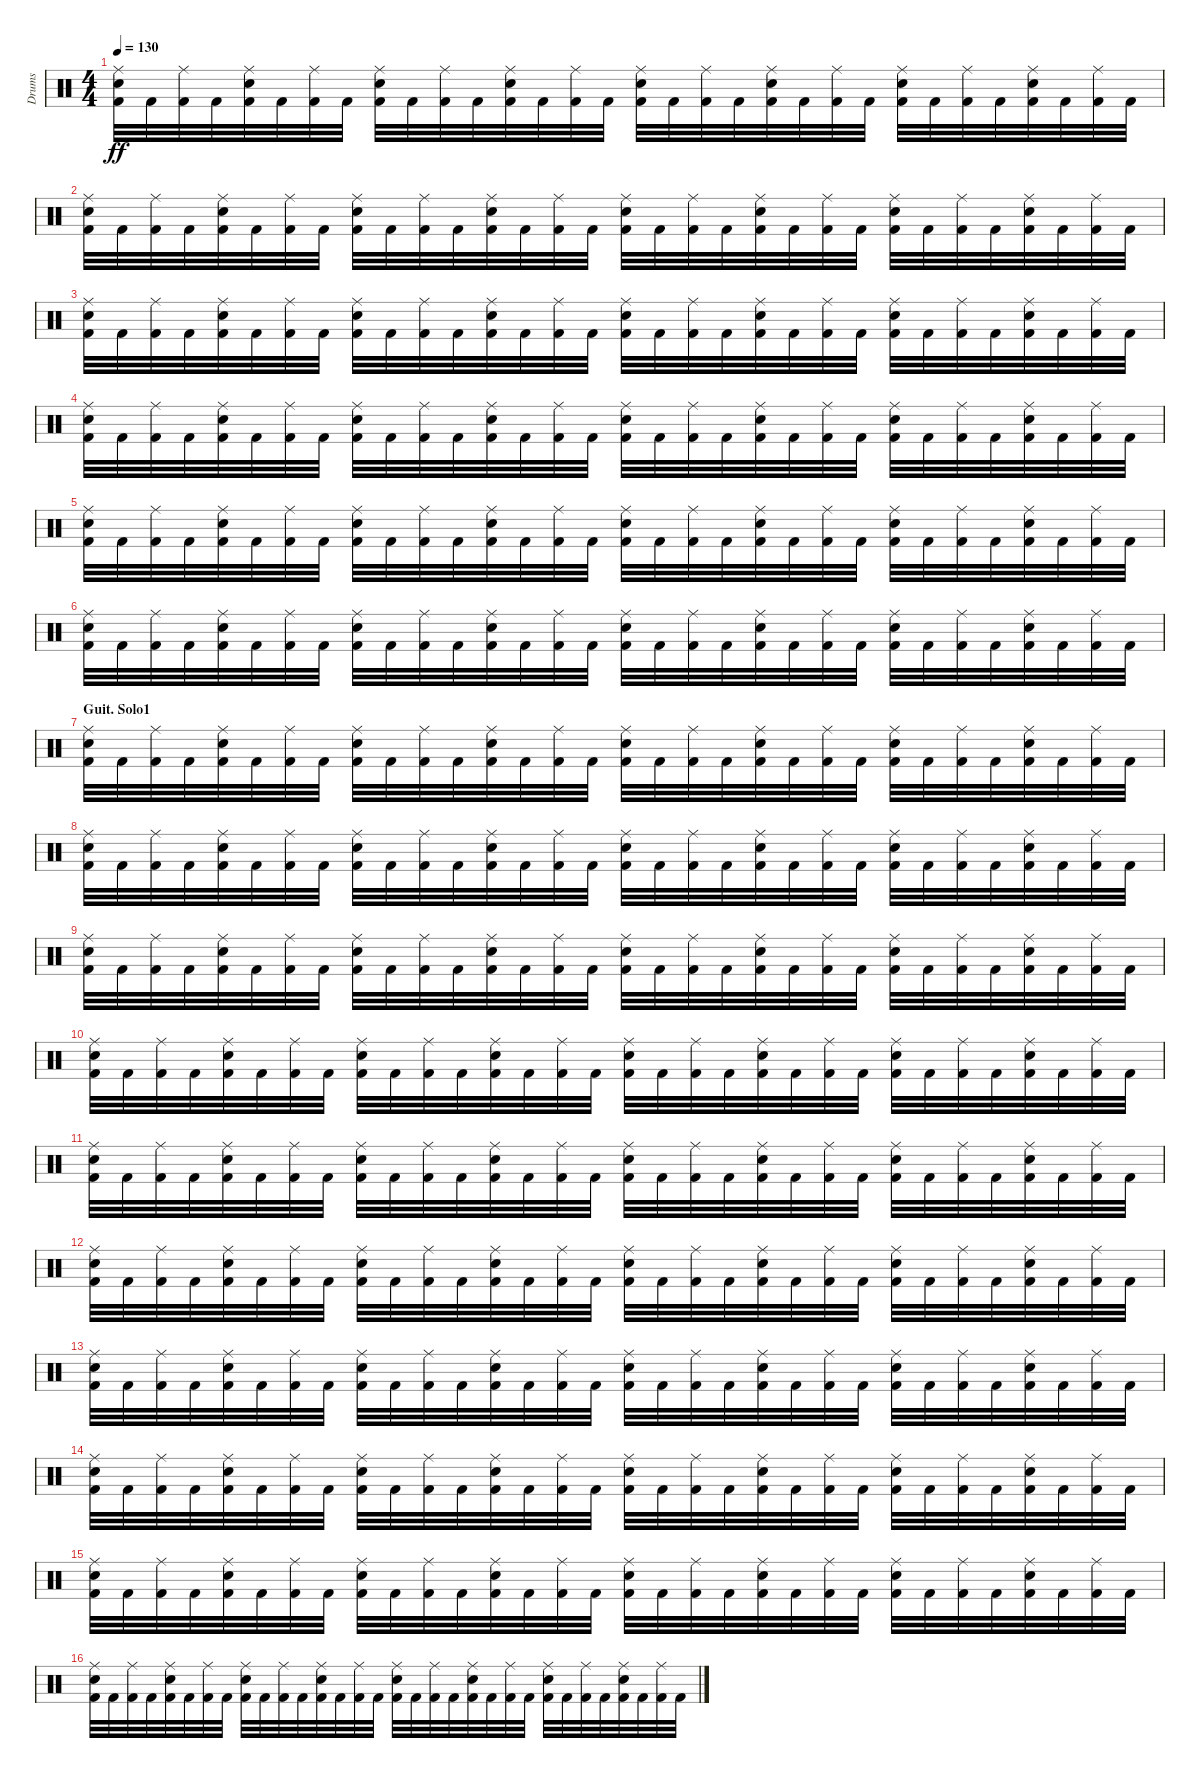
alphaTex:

\track ("Drums" "Drums") {instrument percussion}
\staff {score}
\articulation defaults
\ts (4 4)
\tempo 130
\clef neutral
\ks c
("Electric Snare (hit)" "Ride (middle)" "Kick (hit) 2").32{dy ff} "Kick (hit) 2".32 ("Ride (middle)" "Kick (hit) 2").32 "Kick (hit) 2".32 ("Electric Snare (hit)" "Ride (middle)" "Kick (hit) 2").32 "Kick (hit) 2".32 ("Ride (middle)" "Kick (hit) 2").32 "Kick (hit) 2".32 ("Electric Snare (hit)" "Ride (middle)" "Kick (hit) 2").32 "Kick (hit) 2".32 ("Ride (middle)" "Kick (hit) 2").32 "Kick (hit) 2".32 ("Electric Snare (hit)" "Ride (middle)" "Kick (hit) 2").32 "Kick (hit) 2".32 ("Ride (middle)" "Kick (hit) 2").32 "Kick (hit) 2".32 ("Electric Snare (hit)" "Ride (middle)" "Kick (hit) 2").32 "Kick (hit) 2".32 ("Ride (middle)" "Kick (hit) 2").32 "Kick (hit) 2".32 ("Electric Snare (hit)" "Ride (middle)" "Kick (hit) 2").32 "Kick (hit) 2".32 ("Ride (middle)" "Kick (hit) 2").32 "Kick (hit) 2".32 ("Electric Snare (hit)" "Ride (middle)" "Kick (hit) 2").32 "Kick (hit) 2".32 ("Ride (middle)" "Kick (hit) 2").32 "Kick (hit) 2".32 ("Electric Snare (hit)" "Ride (middle)" "Kick (hit) 2").32 "Kick (hit) 2".32 ("Ride (middle)" "Kick (hit) 2").32 "Kick (hit) 2".32 |
("Electric Snare (hit)" "Ride (middle)" "Kick (hit) 2").32 "Kick (hit) 2".32 ("Ride (middle)" "Kick (hit) 2").32 "Kick (hit) 2".32 ("Electric Snare (hit)" "Ride (middle)" "Kick (hit) 2").32 "Kick (hit) 2".32 ("Ride (middle)" "Kick (hit) 2").32 "Kick (hit) 2".32 ("Electric Snare (hit)" "Ride (middle)" "Kick (hit) 2").32 "Kick (hit) 2".32 ("Ride (middle)" "Kick (hit) 2").32 "Kick (hit) 2".32 ("Electric Snare (hit)" "Ride (middle)" "Kick (hit) 2").32 "Kick (hit) 2".32 ("Ride (middle)" "Kick (hit) 2").32 "Kick (hit) 2".32 ("Electric Snare (hit)" "Ride (middle)" "Kick (hit) 2").32 "Kick (hit) 2".32 ("Ride (middle)" "Kick (hit) 2").32 "Kick (hit) 2".32 ("Electric Snare (hit)" "Ride (middle)" "Kick (hit) 2").32 "Kick (hit) 2".32 ("Ride (middle)" "Kick (hit) 2").32 "Kick (hit) 2".32 ("Electric Snare (hit)" "Ride (middle)" "Kick (hit) 2").32 "Kick (hit) 2".32 ("Ride (middle)" "Kick (hit) 2").32 "Kick (hit) 2".32 ("Electric Snare (hit)" "Ride (middle)" "Kick (hit) 2").32 "Kick (hit) 2".32 ("Ride (middle)" "Kick (hit) 2").32 "Kick (hit) 2".32 |
("Electric Snare (hit)" "Ride (middle)" "Kick (hit) 2").32 "Kick (hit) 2".32 ("Ride (middle)" "Kick (hit) 2").32 "Kick (hit) 2".32 ("Electric Snare (hit)" "Ride (middle)" "Kick (hit) 2").32 "Kick (hit) 2".32 ("Ride (middle)" "Kick (hit) 2").32 "Kick (hit) 2".32 ("Electric Snare (hit)" "Ride (middle)" "Kick (hit) 2").32 "Kick (hit) 2".32 ("Ride (middle)" "Kick (hit) 2").32 "Kick (hit) 2".32 ("Electric Snare (hit)" "Ride (middle)" "Kick (hit) 2").32 "Kick (hit) 2".32 ("Ride (middle)" "Kick (hit) 2").32 "Kick (hit) 2".32 ("Electric Snare (hit)" "Ride (middle)" "Kick (hit) 2").32 "Kick (hit) 2".32 ("Ride (middle)" "Kick (hit) 2").32 "Kick (hit) 2".32 ("Electric Snare (hit)" "Ride (middle)" "Kick (hit) 2").32 "Kick (hit) 2".32 ("Ride (middle)" "Kick (hit) 2").32 "Kick (hit) 2".32 ("Electric Snare (hit)" "Ride (middle)" "Kick (hit) 2").32 "Kick (hit) 2".32 ("Ride (middle)" "Kick (hit) 2").32 "Kick (hit) 2".32 ("Electric Snare (hit)" "Ride (middle)" "Kick (hit) 2").32 "Kick (hit) 2".32 ("Ride (middle)" "Kick (hit) 2").32 "Kick (hit) 2".32 |
("Electric Snare (hit)" "Ride (middle)" "Kick (hit) 2").32 "Kick (hit) 2".32 ("Ride (middle)" "Kick (hit) 2").32 "Kick (hit) 2".32 ("Electric Snare (hit)" "Ride (middle)" "Kick (hit) 2").32 "Kick (hit) 2".32 ("Ride (middle)" "Kick (hit) 2").32 "Kick (hit) 2".32 ("Electric Snare (hit)" "Ride (middle)" "Kick (hit) 2").32 "Kick (hit) 2".32 ("Ride (middle)" "Kick (hit) 2").32 "Kick (hit) 2".32 ("Electric Snare (hit)" "Ride (middle)" "Kick (hit) 2").32 "Kick (hit) 2".32 ("Ride (middle)" "Kick (hit) 2").32 "Kick (hit) 2".32 ("Electric Snare (hit)" "Ride (middle)" "Kick (hit) 2").32 "Kick (hit) 2".32 ("Ride (middle)" "Kick (hit) 2").32 "Kick (hit) 2".32 ("Electric Snare (hit)" "Ride (middle)" "Kick (hit) 2").32 "Kick (hit) 2".32 ("Ride (middle)" "Kick (hit) 2").32 "Kick (hit) 2".32 ("Electric Snare (hit)" "Ride (middle)" "Kick (hit) 2").32 "Kick (hit) 2".32 ("Ride (middle)" "Kick (hit) 2").32 "Kick (hit) 2".32 ("Electric Snare (hit)" "Ride (middle)" "Kick (hit) 2").32 "Kick (hit) 2".32 ("Ride (middle)" "Kick (hit) 2").32 "Kick (hit) 2".32 |
("Electric Snare (hit)" "Ride (middle)" "Kick (hit) 2").32 "Kick (hit) 2".32 ("Ride (middle)" "Kick (hit) 2").32 "Kick (hit) 2".32 ("Electric Snare (hit)" "Ride (middle)" "Kick (hit) 2").32 "Kick (hit) 2".32 ("Ride (middle)" "Kick (hit) 2").32 "Kick (hit) 2".32 ("Electric Snare (hit)" "Ride (middle)" "Kick (hit) 2").32 "Kick (hit) 2".32 ("Ride (middle)" "Kick (hit) 2").32 "Kick (hit) 2".32 ("Electric Snare (hit)" "Ride (middle)" "Kick (hit) 2").32 "Kick (hit) 2".32 ("Ride (middle)" "Kick (hit) 2").32 "Kick (hit) 2".32 ("Electric Snare (hit)" "Ride (middle)" "Kick (hit) 2").32 "Kick (hit) 2".32 ("Ride (middle)" "Kick (hit) 2").32 "Kick (hit) 2".32 ("Electric Snare (hit)" "Ride (middle)" "Kick (hit) 2").32 "Kick (hit) 2".32 ("Ride (middle)" "Kick (hit) 2").32 "Kick (hit) 2".32 ("Electric Snare (hit)" "Ride (middle)" "Kick (hit) 2").32 "Kick (hit) 2".32 ("Ride (middle)" "Kick (hit) 2").32 "Kick (hit) 2".32 ("Electric Snare (hit)" "Ride (middle)" "Kick (hit) 2").32 "Kick (hit) 2".32 ("Ride (middle)" "Kick (hit) 2").32 "Kick (hit) 2".32 |
("Electric Snare (hit)" "Ride (middle)" "Kick (hit) 2").32 "Kick (hit) 2".32 ("Ride (middle)" "Kick (hit) 2").32 "Kick (hit) 2".32 ("Electric Snare (hit)" "Ride (middle)" "Kick (hit) 2").32 "Kick (hit) 2".32 ("Ride (middle)" "Kick (hit) 2").32 "Kick (hit) 2".32 ("Electric Snare (hit)" "Ride (middle)" "Kick (hit) 2").32 "Kick (hit) 2".32 ("Ride (middle)" "Kick (hit) 2").32 "Kick (hit) 2".32 ("Electric Snare (hit)" "Ride (middle)" "Kick (hit) 2").32 "Kick (hit) 2".32 ("Ride (middle)" "Kick (hit) 2").32 "Kick (hit) 2".32 ("Electric Snare (hit)" "Ride (middle)" "Kick (hit) 2").32 "Kick (hit) 2".32 ("Ride (middle)" "Kick (hit) 2").32 "Kick (hit) 2".32 ("Electric Snare (hit)" "Ride (middle)" "Kick (hit) 2").32 "Kick (hit) 2".32 ("Ride (middle)" "Kick (hit) 2").32 "Kick (hit) 2".32 ("Electric Snare (hit)" "Ride (middle)" "Kick (hit) 2").32 "Kick (hit) 2".32 ("Ride (middle)" "Kick (hit) 2").32 "Kick (hit) 2".32 ("Electric Snare (hit)" "Ride (middle)" "Kick (hit) 2").32 "Kick (hit) 2".32 ("Ride (middle)" "Kick (hit) 2").32 "Kick (hit) 2".32 |
\section ("" "Guit. Solo1")
("Electric Snare (hit)" "Ride (middle)" "Kick (hit) 2").32 "Kick (hit) 2".32 ("Ride (middle)" "Kick (hit) 2").32 "Kick (hit) 2".32 ("Electric Snare (hit)" "Ride (middle)" "Kick (hit) 2").32 "Kick (hit) 2".32 ("Ride (middle)" "Kick (hit) 2").32 "Kick (hit) 2".32 ("Electric Snare (hit)" "Ride (middle)" "Kick (hit) 2").32 "Kick (hit) 2".32 ("Ride (middle)" "Kick (hit) 2").32 "Kick (hit) 2".32 ("Electric Snare (hit)" "Ride (middle)" "Kick (hit) 2").32 "Kick (hit) 2".32 ("Ride (middle)" "Kick (hit) 2").32 "Kick (hit) 2".32 ("Electric Snare (hit)" "Ride (middle)" "Kick (hit) 2").32 "Kick (hit) 2".32 ("Ride (middle)" "Kick (hit) 2").32 "Kick (hit) 2".32 ("Electric Snare (hit)" "Ride (middle)" "Kick (hit) 2").32 "Kick (hit) 2".32 ("Ride (middle)" "Kick (hit) 2").32 "Kick (hit) 2".32 ("Electric Snare (hit)" "Ride (middle)" "Kick (hit) 2").32 "Kick (hit) 2".32 ("Ride (middle)" "Kick (hit) 2").32 "Kick (hit) 2".32 ("Electric Snare (hit)" "Ride (middle)" "Kick (hit) 2").32 "Kick (hit) 2".32 ("Ride (middle)" "Kick (hit) 2").32 "Kick (hit) 2".32 |
("Electric Snare (hit)" "Ride (middle)" "Kick (hit) 2").32 "Kick (hit) 2".32 ("Ride (middle)" "Kick (hit) 2").32 "Kick (hit) 2".32 ("Electric Snare (hit)" "Ride (middle)" "Kick (hit) 2").32 "Kick (hit) 2".32 ("Ride (middle)" "Kick (hit) 2").32 "Kick (hit) 2".32 ("Electric Snare (hit)" "Ride (middle)" "Kick (hit) 2").32 "Kick (hit) 2".32 ("Ride (middle)" "Kick (hit) 2").32 "Kick (hit) 2".32 ("Electric Snare (hit)" "Ride (middle)" "Kick (hit) 2").32 "Kick (hit) 2".32 ("Ride (middle)" "Kick (hit) 2").32 "Kick (hit) 2".32 ("Electric Snare (hit)" "Ride (middle)" "Kick (hit) 2").32 "Kick (hit) 2".32 ("Ride (middle)" "Kick (hit) 2").32 "Kick (hit) 2".32 ("Electric Snare (hit)" "Ride (middle)" "Kick (hit) 2").32 "Kick (hit) 2".32 ("Ride (middle)" "Kick (hit) 2").32 "Kick (hit) 2".32 ("Electric Snare (hit)" "Ride (middle)" "Kick (hit) 2").32 "Kick (hit) 2".32 ("Ride (middle)" "Kick (hit) 2").32 "Kick (hit) 2".32 ("Electric Snare (hit)" "Ride (middle)" "Kick (hit) 2").32 "Kick (hit) 2".32 ("Ride (middle)" "Kick (hit) 2").32 "Kick (hit) 2".32 |
("Electric Snare (hit)" "Ride (middle)" "Kick (hit) 2").32 "Kick (hit) 2".32 ("Ride (middle)" "Kick (hit) 2").32 "Kick (hit) 2".32 ("Electric Snare (hit)" "Ride (middle)" "Kick (hit) 2").32 "Kick (hit) 2".32 ("Ride (middle)" "Kick (hit) 2").32 "Kick (hit) 2".32 ("Electric Snare (hit)" "Ride (middle)" "Kick (hit) 2").32 "Kick (hit) 2".32 ("Ride (middle)" "Kick (hit) 2").32 "Kick (hit) 2".32 ("Electric Snare (hit)" "Ride (middle)" "Kick (hit) 2").32 "Kick (hit) 2".32 ("Ride (middle)" "Kick (hit) 2").32 "Kick (hit) 2".32 ("Electric Snare (hit)" "Ride (middle)" "Kick (hit) 2").32 "Kick (hit) 2".32 ("Ride (middle)" "Kick (hit) 2").32 "Kick (hit) 2".32 ("Electric Snare (hit)" "Ride (middle)" "Kick (hit) 2").32 "Kick (hit) 2".32 ("Ride (middle)" "Kick (hit) 2").32 "Kick (hit) 2".32 ("Electric Snare (hit)" "Ride (middle)" "Kick (hit) 2").32 "Kick (hit) 2".32 ("Ride (middle)" "Kick (hit) 2").32 "Kick (hit) 2".32 ("Electric Snare (hit)" "Ride (middle)" "Kick (hit) 2").32 "Kick (hit) 2".32 ("Ride (middle)" "Kick (hit) 2").32 "Kick (hit) 2".32 |
("Electric Snare (hit)" "Ride (middle)" "Kick (hit) 2").32 "Kick (hit) 2".32 ("Ride (middle)" "Kick (hit) 2").32 "Kick (hit) 2".32 ("Electric Snare (hit)" "Ride (middle)" "Kick (hit) 2").32 "Kick (hit) 2".32 ("Ride (middle)" "Kick (hit) 2").32 "Kick (hit) 2".32 ("Electric Snare (hit)" "Ride (middle)" "Kick (hit) 2").32 "Kick (hit) 2".32 ("Ride (middle)" "Kick (hit) 2").32 "Kick (hit) 2".32 ("Electric Snare (hit)" "Ride (middle)" "Kick (hit) 2").32 "Kick (hit) 2".32 ("Ride (middle)" "Kick (hit) 2").32 "Kick (hit) 2".32 ("Electric Snare (hit)" "Ride (middle)" "Kick (hit) 2").32 "Kick (hit) 2".32 ("Ride (middle)" "Kick (hit) 2").32 "Kick (hit) 2".32 ("Electric Snare (hit)" "Ride (middle)" "Kick (hit) 2").32 "Kick (hit) 2".32 ("Ride (middle)" "Kick (hit) 2").32 "Kick (hit) 2".32 ("Electric Snare (hit)" "Ride (middle)" "Kick (hit) 2").32 "Kick (hit) 2".32 ("Ride (middle)" "Kick (hit) 2").32 "Kick (hit) 2".32 ("Electric Snare (hit)" "Ride (middle)" "Kick (hit) 2").32 "Kick (hit) 2".32 ("Ride (middle)" "Kick (hit) 2").32 "Kick (hit) 2".32 |
("Electric Snare (hit)" "Ride (middle)" "Kick (hit) 2").32 "Kick (hit) 2".32 ("Ride (middle)" "Kick (hit) 2").32 "Kick (hit) 2".32 ("Electric Snare (hit)" "Ride (middle)" "Kick (hit) 2").32 "Kick (hit) 2".32 ("Ride (middle)" "Kick (hit) 2").32 "Kick (hit) 2".32 ("Electric Snare (hit)" "Ride (middle)" "Kick (hit) 2").32 "Kick (hit) 2".32 ("Ride (middle)" "Kick (hit) 2").32 "Kick (hit) 2".32 ("Electric Snare (hit)" "Ride (middle)" "Kick (hit) 2").32 "Kick (hit) 2".32 ("Ride (middle)" "Kick (hit) 2").32 "Kick (hit) 2".32 ("Electric Snare (hit)" "Ride (middle)" "Kick (hit) 2").32 "Kick (hit) 2".32 ("Ride (middle)" "Kick (hit) 2").32 "Kick (hit) 2".32 ("Electric Snare (hit)" "Ride (middle)" "Kick (hit) 2").32 "Kick (hit) 2".32 ("Ride (middle)" "Kick (hit) 2").32 "Kick (hit) 2".32 ("Electric Snare (hit)" "Ride (middle)" "Kick (hit) 2").32 "Kick (hit) 2".32 ("Ride (middle)" "Kick (hit) 2").32 "Kick (hit) 2".32 ("Electric Snare (hit)" "Ride (middle)" "Kick (hit) 2").32 "Kick (hit) 2".32 ("Ride (middle)" "Kick (hit) 2").32 "Kick (hit) 2".32 |
("Electric Snare (hit)" "Ride (middle)" "Kick (hit) 2").32 "Kick (hit) 2".32 ("Ride (middle)" "Kick (hit) 2").32 "Kick (hit) 2".32 ("Electric Snare (hit)" "Ride (middle)" "Kick (hit) 2").32 "Kick (hit) 2".32 ("Ride (middle)" "Kick (hit) 2").32 "Kick (hit) 2".32 ("Electric Snare (hit)" "Ride (middle)" "Kick (hit) 2").32 "Kick (hit) 2".32 ("Ride (middle)" "Kick (hit) 2").32 "Kick (hit) 2".32 ("Electric Snare (hit)" "Ride (middle)" "Kick (hit) 2").32 "Kick (hit) 2".32 ("Ride (middle)" "Kick (hit) 2").32 "Kick (hit) 2".32 ("Electric Snare (hit)" "Ride (middle)" "Kick (hit) 2").32 "Kick (hit) 2".32 ("Ride (middle)" "Kick (hit) 2").32 "Kick (hit) 2".32 ("Electric Snare (hit)" "Ride (middle)" "Kick (hit) 2").32 "Kick (hit) 2".32 ("Ride (middle)" "Kick (hit) 2").32 "Kick (hit) 2".32 ("Electric Snare (hit)" "Ride (middle)" "Kick (hit) 2").32 "Kick (hit) 2".32 ("Ride (middle)" "Kick (hit) 2").32 "Kick (hit) 2".32 ("Electric Snare (hit)" "Ride (middle)" "Kick (hit) 2").32 "Kick (hit) 2".32 ("Ride (middle)" "Kick (hit) 2").32 "Kick (hit) 2".32 |
("Electric Snare (hit)" "Ride (middle)" "Kick (hit) 2").32 "Kick (hit) 2".32 ("Ride (middle)" "Kick (hit) 2").32 "Kick (hit) 2".32 ("Electric Snare (hit)" "Ride (middle)" "Kick (hit) 2").32 "Kick (hit) 2".32 ("Ride (middle)" "Kick (hit) 2").32 "Kick (hit) 2".32 ("Electric Snare (hit)" "Ride (middle)" "Kick (hit) 2").32 "Kick (hit) 2".32 ("Ride (middle)" "Kick (hit) 2").32 "Kick (hit) 2".32 ("Electric Snare (hit)" "Ride (middle)" "Kick (hit) 2").32 "Kick (hit) 2".32 ("Ride (middle)" "Kick (hit) 2").32 "Kick (hit) 2".32 ("Electric Snare (hit)" "Ride (middle)" "Kick (hit) 2").32 "Kick (hit) 2".32 ("Ride (middle)" "Kick (hit) 2").32 "Kick (hit) 2".32 ("Electric Snare (hit)" "Ride (middle)" "Kick (hit) 2").32 "Kick (hit) 2".32 ("Ride (middle)" "Kick (hit) 2").32 "Kick (hit) 2".32 ("Electric Snare (hit)" "Ride (middle)" "Kick (hit) 2").32 "Kick (hit) 2".32 ("Ride (middle)" "Kick (hit) 2").32 "Kick (hit) 2".32 ("Electric Snare (hit)" "Ride (middle)" "Kick (hit) 2").32 "Kick (hit) 2".32 ("Ride (middle)" "Kick (hit) 2").32 "Kick (hit) 2".32 |
("Electric Snare (hit)" "Ride (middle)" "Kick (hit) 2").32 "Kick (hit) 2".32 ("Ride (middle)" "Kick (hit) 2").32 "Kick (hit) 2".32 ("Electric Snare (hit)" "Ride (middle)" "Kick (hit) 2").32 "Kick (hit) 2".32 ("Ride (middle)" "Kick (hit) 2").32 "Kick (hit) 2".32 ("Electric Snare (hit)" "Ride (middle)" "Kick (hit) 2").32 "Kick (hit) 2".32 ("Ride (middle)" "Kick (hit) 2").32 "Kick (hit) 2".32 ("Electric Snare (hit)" "Ride (middle)" "Kick (hit) 2").32 "Kick (hit) 2".32 ("Ride (middle)" "Kick (hit) 2").32 "Kick (hit) 2".32 ("Electric Snare (hit)" "Ride (middle)" "Kick (hit) 2").32 "Kick (hit) 2".32 ("Ride (middle)" "Kick (hit) 2").32 "Kick (hit) 2".32 ("Electric Snare (hit)" "Ride (middle)" "Kick (hit) 2").32 "Kick (hit) 2".32 ("Ride (middle)" "Kick (hit) 2").32 "Kick (hit) 2".32 ("Electric Snare (hit)" "Ride (middle)" "Kick (hit) 2").32 "Kick (hit) 2".32 ("Ride (middle)" "Kick (hit) 2").32 "Kick (hit) 2".32 ("Electric Snare (hit)" "Ride (middle)" "Kick (hit) 2").32 "Kick (hit) 2".32 ("Ride (middle)" "Kick (hit) 2").32 "Kick (hit) 2".32 |
("Electric Snare (hit)" "Ride (middle)" "Kick (hit) 2").32 "Kick (hit) 2".32 ("Ride (middle)" "Kick (hit) 2").32 "Kick (hit) 2".32 ("Electric Snare (hit)" "Ride (middle)" "Kick (hit) 2").32 "Kick (hit) 2".32 ("Ride (middle)" "Kick (hit) 2").32 "Kick (hit) 2".32 ("Electric Snare (hit)" "Ride (middle)" "Kick (hit) 2").32 "Kick (hit) 2".32 ("Ride (middle)" "Kick (hit) 2").32 "Kick (hit) 2".32 ("Electric Snare (hit)" "Ride (middle)" "Kick (hit) 2").32 "Kick (hit) 2".32 ("Ride (middle)" "Kick (hit) 2").32 "Kick (hit) 2".32 ("Electric Snare (hit)" "Ride (middle)" "Kick (hit) 2").32 "Kick (hit) 2".32 ("Ride (middle)" "Kick (hit) 2").32 "Kick (hit) 2".32 ("Electric Snare (hit)" "Ride (middle)" "Kick (hit) 2").32 "Kick (hit) 2".32 ("Ride (middle)" "Kick (hit) 2").32 "Kick (hit) 2".32 ("Electric Snare (hit)" "Ride (middle)" "Kick (hit) 2").32 "Kick (hit) 2".32 ("Ride (middle)" "Kick (hit) 2").32 "Kick (hit) 2".32 ("Electric Snare (hit)" "Ride (middle)" "Kick (hit) 2").32 "Kick (hit) 2".32 ("Ride (middle)" "Kick (hit) 2").32 "Kick (hit) 2".32 |
("Electric Snare (hit)" "Ride (middle)" "Kick (hit) 2").32 "Kick (hit) 2".32 ("Ride (middle)" "Kick (hit) 2").32 "Kick (hit) 2".32 ("Electric Snare (hit)" "Ride (middle)" "Kick (hit) 2").32 "Kick (hit) 2".32 ("Ride (middle)" "Kick (hit) 2").32 "Kick (hit) 2".32 ("Electric Snare (hit)" "Ride (middle)" "Kick (hit) 2").32 "Kick (hit) 2".32 ("Ride (middle)" "Kick (hit) 2").32 "Kick (hit) 2".32 ("Electric Snare (hit)" "Ride (middle)" "Kick (hit) 2").32 "Kick (hit) 2".32 ("Ride (middle)" "Kick (hit) 2").32 "Kick (hit) 2".32 ("Electric Snare (hit)" "Ride (middle)" "Kick (hit) 2").32 "Kick (hit) 2".32 ("Ride (middle)" "Kick (hit) 2").32 "Kick (hit) 2".32 ("Electric Snare (hit)" "Ride (middle)" "Kick (hit) 2").32 "Kick (hit) 2".32 ("Ride (middle)" "Kick (hit) 2").32 "Kick (hit) 2".32 ("Electric Snare (hit)" "Ride (middle)" "Kick (hit) 2").32 "Kick (hit) 2".32 ("Ride (middle)" "Kick (hit) 2").32 "Kick (hit) 2".32 ("Electric Snare (hit)" "Ride (middle)" "Kick (hit) 2").32 "Kick (hit) 2".32 ("Ride (middle)" "Kick (hit) 2").32 "Kick (hit) 2".32
